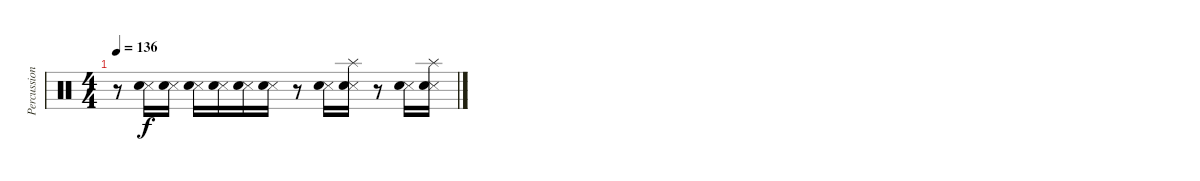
\track ("Percussions" "Percussion") {instrument percussion}
\staff {score}
\articulation defaults
\ts (4 4)
\tempo 136
\clef neutral
\ks c
r.8{dy f} ("Snare (side stick) 3" "Electric Snare (hit)").16 ("Snare (side stick) 3" "Electric Snare (hit)").16 ("Snare (side stick) 3" "Electric Snare (hit)").16 ("Snare (side stick) 3" "Electric Snare (hit)").16 ("Snare (side stick) 3" "Electric Snare (hit)").16 ("Snare (side stick) 3" "Electric Snare (hit)").16 r.8 ("Snare (side stick) 3" "Electric Snare (hit)").16 ("Snare (side stick) 3" "Electric Snare (hit)" "Splash (hit)").16 r.8 ("Snare (side stick) 3" "Electric Snare (hit)").16 ("Snare (side stick) 3" "Electric Snare (hit)" "Splash (hit)").16
